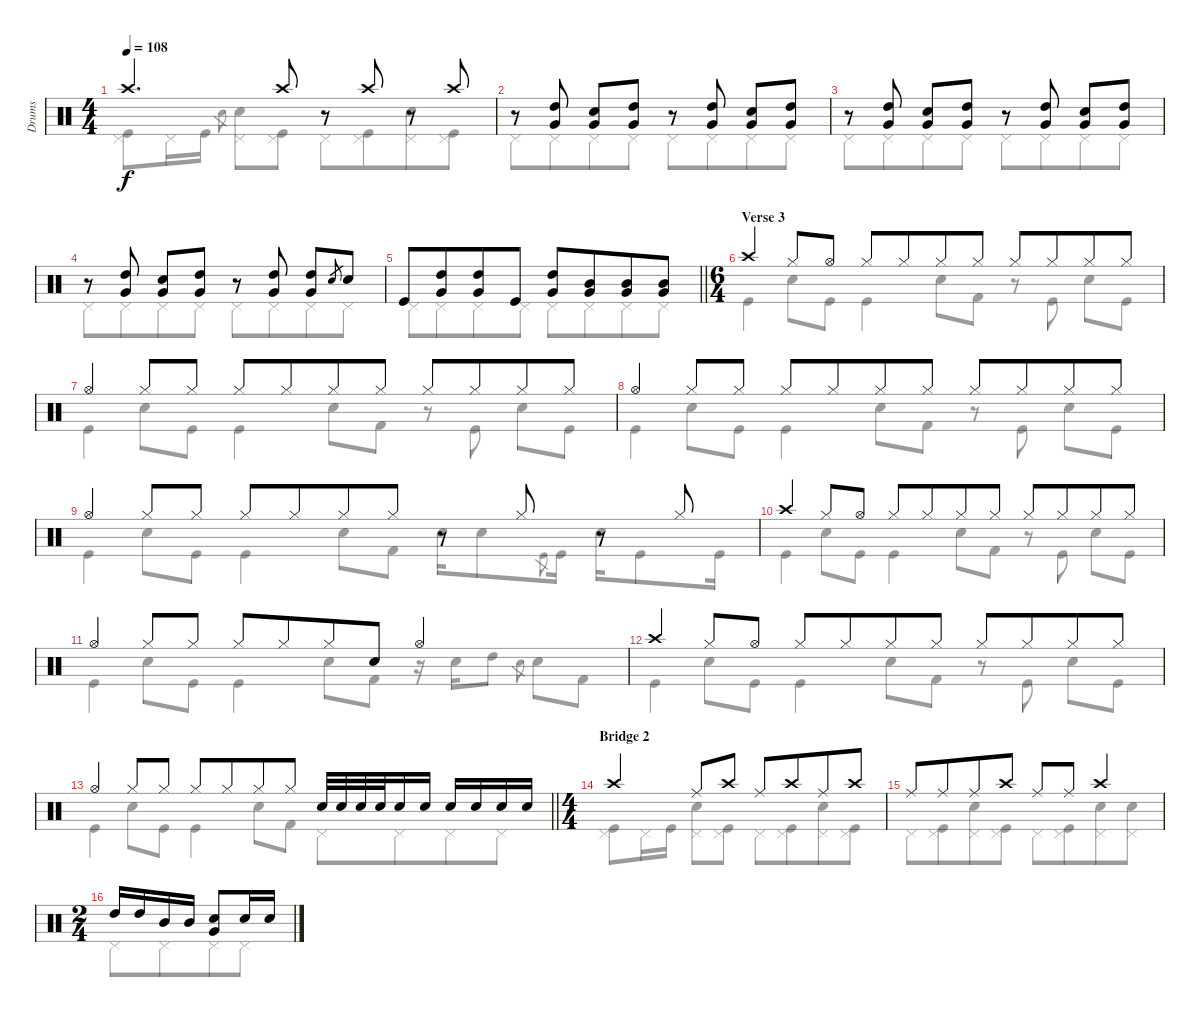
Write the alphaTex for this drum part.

\track ("Drums" "Drums") {instrument percussion}
\staff {score}
\articulation defaults
\voice
\ts (4 4)
\tempo 108
\clef neutral
\ks c "Crash high (hit)".4{d dy f beam Up} "Crash high (hit)".8{beam Up}
r.8 "Crash high (hit)".8{beam Up} r.8 "Crash high (hit)".8{beam Up} |
r.8 ("High Tom (hit)" "Very Low Tom (hit)").8 ("Snare (hit) 2" "Very Low Tom (hit)").8 ("High Tom (hit)" "Very Low Tom (hit)").8 r.8 ("High Tom (hit)" "Very Low Tom (hit)").8 ("Snare (hit) 2" "Very Low Tom (hit)").8 ("High Tom (hit)" "Very Low Tom (hit)").8 |
r.8 ("High Tom (hit)" "Very Low Tom (hit)").8{beam Up} ("Snare (hit) 2" "Very Low Tom (hit)").8{beam Up} ("High Tom (hit)" "Very Low Tom (hit)").8{beam Up} r.8 ("High Tom (hit)" "Very Low Tom (hit)").8{beam Up} ("Snare (hit) 2" "Very Low Tom (hit)").8{beam Up} ("High Tom (hit)" "Very Low Tom (hit)").8{beam Up} |
r.8 ("High Tom (hit)" "Very Low Tom (hit)").8{beam Up} ("Snare (hit) 2" "Very Low Tom (hit)").8{beam Up} ("High Tom (hit)" "Very Low Tom (hit)").8{beam Up} r.8 ("High Tom (hit)" "Very Low Tom (hit)").8{beam Up} ("High Tom (hit)" "Very Low Tom (hit)").8{beam Up} "Snare (hit) 2".8{gr} "Snare (hit) 2".8{beam Up} |
\barLineRight lightlight "Kick (hit)".8{beam merge}
("High Tom (hit)" "Very Low Tom (hit)").8{beam merge} ("High Tom (hit)" "Very Low Tom (hit)").8{beam merge} "Kick (hit)".8{beam split} ("High Tom (hit)" "Very Low Tom (hit)").8 ("Mid Tom (hit)" "Very Low Tom (hit)").8{beam merge} ("Mid Tom (hit)" "Very Low Tom (hit)").8 ("Mid Tom (hit)" "Very Low Tom (hit)").8 |
\ts (6 4)
\section ("" "Verse 3")
"Crash high (hit)".4{beam Up} "Hi-Hat (closed)".8{beam Up} "Hi-Hat (open)".8{beam Up beam split} "Hi-Hat (closed)".8{beam Up beam merge} "Hi-Hat (closed)".8{beam Up beam merge} "Hi-Hat (closed)".8{beam Up beam merge} "Hi-Hat (closed)".8{beam Up beam split} "Hi-Hat (closed)".8{beam Up beam merge} "Hi-Hat (closed)".8{beam Up beam merge} "Hi-Hat (closed)".8{beam Up beam merge} "Hi-Hat (closed)".8{beam Up} |
"Hi-Hat (open)".4{beam Up} "Hi-Hat (closed)".8{beam Up} "Hi-Hat (closed)".8{beam Up beam split} "Hi-Hat (closed)".8{beam Up beam merge} "Hi-Hat (closed)".8{beam Up beam merge} "Hi-Hat (closed)".8{beam Up beam merge} "Hi-Hat (closed)".8{beam Up beam split} "Hi-Hat (closed)".8{beam Up beam merge} "Hi-Hat (closed)".8{beam Up beam merge} "Hi-Hat (closed)".8{beam Up beam merge} "Hi-Hat (closed)".8{beam Up} |
"Hi-Hat (open)".4{beam Up} "Hi-Hat (closed)".8{beam Up} "Hi-Hat (closed)".8{beam Up beam split} "Hi-Hat (closed)".8{beam Up beam merge} "Hi-Hat (closed)".8{beam Up beam merge} "Hi-Hat (closed)".8{beam Up beam merge} "Hi-Hat (closed)".8{beam Up beam split} "Hi-Hat (closed)".8{beam Up beam merge} "Hi-Hat (closed)".8{beam Up beam merge} "Hi-Hat (closed)".8{beam Up beam merge} "Hi-Hat (closed)".8{beam Up} |
"Hi-Hat (open)".4{beam Up} "Hi-Hat (closed)".8{beam Up} "Hi-Hat (closed)".8{beam Up beam split} "Hi-Hat (closed)".8{beam Up beam merge} "Hi-Hat (closed)".8{beam Up beam merge} "Hi-Hat (closed)".8{beam Up beam merge} "Hi-Hat (closed)".8{beam Up} r.8 "Hi-Hat (closed)".8{beam Up} r.8 "Hi-Hat (closed)".8{beam Up} |
"Crash high (hit)".4{beam Up} "Hi-Hat (closed)".8{beam Up} "Hi-Hat (open)".8{beam Up beam split} "Hi-Hat (closed)".8{beam Up beam merge} "Hi-Hat (closed)".8{beam Up beam merge} "Hi-Hat (closed)".8{beam Up beam merge} "Hi-Hat (closed)".8{beam Up beam split} "Hi-Hat (closed)".8{beam Up beam merge} "Hi-Hat (closed)".8{beam Up beam merge} "Hi-Hat (closed)".8{beam Up beam merge} "Hi-Hat (closed)".8{beam Up} |
"Hi-Hat (open)".4{beam Up} "Hi-Hat (closed)".8{beam Up} "Hi-Hat (closed)".8{beam Up beam split} "Hi-Hat (closed)".8{beam Up beam merge} "Hi-Hat (closed)".8{beam Up beam merge} "Hi-Hat (closed)".8{beam Up beam merge} "Snare (hit) 2".8{beam Up} "Hi-Hat (open)".2{beam Up} |
"Crash high (hit)".4{beam Up} "Hi-Hat (closed)".8{beam Up} "Hi-Hat (open)".8{beam Up beam split} "Hi-Hat (closed)".8{beam Up beam merge} "Hi-Hat (closed)".8{beam Up beam merge} "Hi-Hat (closed)".8{beam Up beam merge} "Hi-Hat (closed)".8{beam Up beam split} "Hi-Hat (closed)".8{beam Up beam merge} "Hi-Hat (closed)".8{beam Up beam merge} "Hi-Hat (closed)".8{beam Up beam merge} "Hi-Hat (closed)".8{beam Up} |
\barLineRight lightlight "Hi-Hat (open)".4{beam Up} "Hi-Hat (closed)".8{beam Up} "Hi-Hat (closed)".8{beam Up beam split} "Hi-Hat (closed)".8{beam Up beam merge} "Hi-Hat (closed)".8{beam Up beam merge} "Hi-Hat (closed)".8{beam Up beam merge} "Hi-Hat (closed)".8{beam Up beam split} "Snare (hit) 2".32{beam Up} "Snare (hit) 2".32{beam Up} "Snare (hit) 2".32{beam Up} "Snare (hit) 2".32{beam Up} "Snare (hit) 2".16{beam Up} "Snare (hit) 2".16{beam Up beam split} "Snare (hit) 2".16{beam Up} "Snare (hit) 2".16{beam Up} "Snare (hit) 2".16{beam Up} "Snare (hit) 2".16{beam Up}
|
\ts (4 4)
\section ("" "Bridge 2")
"Crash high (hit)".4{beam Up} "Ride (middle)".8{beam Up beam merge} "Crash high (hit)".8{beam Up beam split} "Ride (middle)".8{beam Up beam merge} "Crash high (hit)".8{beam Up beam merge} "Ride (middle)".8{beam Up beam merge} "Crash high (hit)".8{beam Up} |
"Ride (middle)".8{beam Up beam merge} "Ride (middle)".8{beam Up beam merge} "Ride (middle)".8{beam Up beam merge} "Crash high (hit)".8{beam Up} "Ride (middle)".8{beam Up} "Ride (middle)".8{beam Up} "Crash high (hit)".4{beam Up} |
\ts (2 4)
"High Tom (hit)".16 "High Tom (hit)".16 "Mid Tom (hit)".16 "Mid Tom (hit)".16 ("Snare (hit) 2" "Very Low Tom (hit)").8 "Snare (hit) 2".16 "Snare (hit) 2".16
\voice
\clef neutral
\ottava regular
\simile none
\ks c
("Kick (hit)" "Pedal Hi-Hat (hit)").8{dy f} "Pedal Hi-Hat (hit)".16 "Kick (hit)".16 "Snare (hit) 2".8{gr} ("Snare (hit) 2" "Pedal Hi-Hat (hit)").8 ("Kick (hit)" "Pedal Hi-Hat (hit)").8 "Pedal Hi-Hat (hit)".8 ("Kick (hit)" "Pedal Hi-Hat (hit)").8{beam merge} ("Snare (hit) 2" "Pedal Hi-Hat (hit)").8 ("Kick (hit)" "Pedal Hi-Hat (hit)").8 |
"Pedal Hi-Hat (hit)".8 "Pedal Hi-Hat (hit)".8{beam merge} "Pedal Hi-Hat (hit)".8 "Pedal Hi-Hat (hit)".8 "Pedal Hi-Hat (hit)".8 "Pedal Hi-Hat (hit)".8{beam merge} "Pedal Hi-Hat (hit)".8 "Pedal Hi-Hat (hit)".8 |
"Pedal Hi-Hat (hit)".8 "Pedal Hi-Hat (hit)".8{beam merge} "Pedal Hi-Hat (hit)".8 "Pedal Hi-Hat (hit)".8 "Pedal Hi-Hat (hit)".8 "Pedal Hi-Hat (hit)".8{beam merge} "Pedal Hi-Hat (hit)".8 "Pedal Hi-Hat (hit)".8 |
"Pedal Hi-Hat (hit)".8 "Pedal Hi-Hat (hit)".8{beam merge} "Pedal Hi-Hat (hit)".8 "Pedal Hi-Hat (hit)".8 "Pedal Hi-Hat (hit)".8 "Pedal Hi-Hat (hit)".8{beam merge} "Pedal Hi-Hat (hit)".8 "Pedal Hi-Hat (hit)".8 |
\barLineRight lightlight "Pedal Hi-Hat (hit)".8 "Pedal Hi-Hat (hit)".8{beam merge} "Pedal Hi-Hat (hit)".8 "Pedal Hi-Hat (hit)".8 "Pedal Hi-Hat (hit)".8 "Pedal Hi-Hat (hit)".8{beam merge} "Pedal Hi-Hat (hit)".8 "Pedal Hi-Hat (hit)".8
|
"Kick (hit)".4 "Snare (hit) 2".8 "Kick (hit)".8 "Kick (hit)".4 "Snare (hit) 2".8 "Kick (hit) 2".8 r.8 "Kick (hit)".8 "Snare (hit) 2".8 "Kick (hit)".8 |
"Kick (hit)".4 "Snare (hit) 2".8 "Kick (hit)".8 "Kick (hit)".4 "Snare (hit) 2".8 "Kick (hit) 2".8 r.8 "Kick (hit)".8 "Snare (hit) 2".8 "Kick (hit)".8 |
"Kick (hit)".4 "Snare (hit) 2".8 "Kick (hit)".8 "Kick (hit)".4 "Snare (hit) 2".8 "Kick (hit) 2".8 r.8 "Kick (hit)".8 "Snare (hit) 2".8 "Kick (hit)".8 |
"Kick (hit)".4 "Snare (hit) 2".8 "Kick (hit)".8 "Kick (hit)".4 "Snare (hit) 2".8 "Kick (hit) 2".8{beam split} "Snare (hit) 2".16 "Snare (hit) 2".8 "Kick (hit)".8{gr} "Kick (hit)".16{beam split} "Snare (hit) 2".16 "Kick (hit)".8 "Kick (hit)".16 |
"Kick (hit)".4 "Snare (hit) 2".8 "Kick (hit)".8 "Kick (hit)".4 "Snare (hit) 2".8 "Kick (hit) 2".8 r.8 "Kick (hit)".8 "Snare (hit) 2".8 "Kick (hit)".8 |
"Kick (hit)".4 "Snare (hit) 2".8 "Kick (hit)".8 "Kick (hit)".4 "Snare (hit) 2".8 "Kick (hit) 2".8 r.16 "Snare (hit) 2".16 "High Tom (hit)".8 "Snare (hit) 2".8{gr} "Snare (hit) 2".8 "Kick (hit) 2".8 |
"Kick (hit)".4 "Snare (hit) 2".8 "Kick (hit)".8 "Kick (hit)".4 "Snare (hit) 2".8 "Kick (hit) 2".8 r.8 "Kick (hit)".8 "Snare (hit) 2".8 "Kick (hit)".8 |
\barLineRight lightlight "Kick (hit)".4 "Snare (hit) 2".8 "Kick (hit)".8 "Kick (hit)".4 "Snare (hit) 2".8 "Kick (hit) 2".8{beam split} "Pedal Hi-Hat (hit)".8 "Pedal Hi-Hat (hit)".8{beam merge} "Pedal Hi-Hat (hit)".8 "Pedal Hi-Hat (hit)".8
|
("Kick (hit)" "Pedal Hi-Hat (hit)").8 "Pedal Hi-Hat (hit)".16 "Kick (hit)".16{beam split} ("Snare (hit) 2" "Pedal Hi-Hat (hit)").8 ("Kick (hit)" "Pedal Hi-Hat (hit)").8{beam split} "Pedal Hi-Hat (hit)".8 ("Kick (hit)" "Pedal Hi-Hat (hit)").8{beam merge} ("Snare (hit) 2" "Pedal Hi-Hat (hit)").8 ("Kick (hit)" "Pedal Hi-Hat (hit)").8 |
"Pedal Hi-Hat (hit)".8 ("Kick (hit)" "Pedal Hi-Hat (hit)").8{beam merge} ("Snare (hit) 2" "Pedal Hi-Hat (hit)").8 ("Kick (hit)" "Pedal Hi-Hat (hit)").8{beam split} "Pedal Hi-Hat (hit)".8 ("Kick (hit)" "Pedal Hi-Hat (hit)").8{beam merge} ("Snare (hit) 2" "Pedal Hi-Hat (hit)").8 ("Snare (hit) 2" "Pedal Hi-Hat (hit)").8 |
"Pedal Hi-Hat (hit)".8 "Pedal Hi-Hat (hit)".8{beam merge} "Pedal Hi-Hat (hit)".8 "Pedal Hi-Hat (hit)".8
